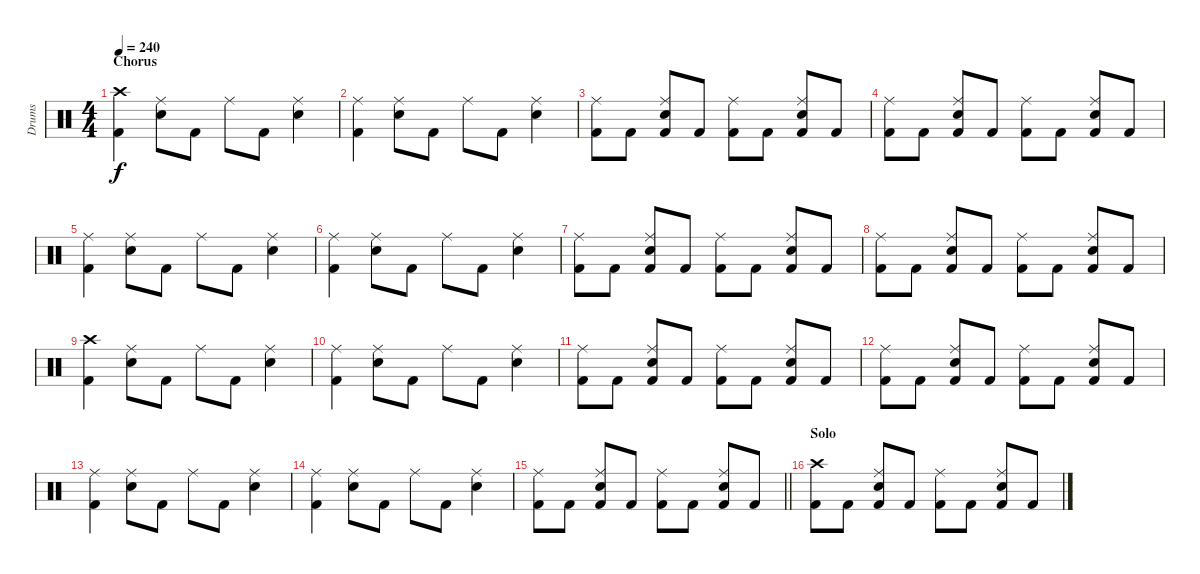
\track ("Drums" "Drums") {instrument percussion}
\staff {score}
\articulation defaults
\ts (4 4)
\section ("" "Chorus")
\tempo 240
\clef neutral
\ks c
("Crash high (hit)" "Kick (hit) 2").4{dy f} ("Ride (middle)" "Snare (hit) 2").8 "Kick (hit) 2".8 "Ride (middle)".8 "Kick (hit) 2".8 ("Ride (middle)" "Snare (hit) 2").4 |
("Ride (middle)" "Kick (hit) 2").4 ("Ride (middle)" "Snare (hit) 2").8 "Kick (hit) 2".8 "Ride (middle)".8 "Kick (hit) 2".8 ("Ride (middle)" "Snare (hit) 2").4 |
("Ride (middle)" "Kick (hit) 2").8 "Kick (hit) 2".8 ("Ride (middle)" "Snare (hit) 2" "Kick (hit) 2").8 "Kick (hit) 2".8 ("Ride (middle)" "Kick (hit) 2").8 "Kick (hit) 2".8 ("Ride (middle)" "Snare (hit) 2" "Kick (hit) 2").8 "Kick (hit) 2".8 |
("Ride (middle)" "Kick (hit) 2").8 "Kick (hit) 2".8 ("Ride (middle)" "Snare (hit) 2" "Kick (hit) 2").8 "Kick (hit) 2".8 ("Ride (middle)" "Kick (hit) 2").8 "Kick (hit) 2".8 ("Ride (middle)" "Snare (hit) 2" "Kick (hit) 2").8 "Kick (hit) 2".8 |
("Ride (middle)" "Kick (hit) 2").4 ("Ride (middle)" "Snare (hit) 2").8 "Kick (hit) 2".8 "Ride (middle)".8 "Kick (hit) 2".8 ("Ride (middle)" "Snare (hit) 2").4 |
("Ride (middle)" "Kick (hit) 2").4 ("Ride (middle)" "Snare (hit) 2").8 "Kick (hit) 2".8 "Ride (middle)".8 "Kick (hit) 2".8 ("Ride (middle)" "Snare (hit) 2").4 |
("Ride (middle)" "Kick (hit) 2").8 "Kick (hit) 2".8 ("Ride (middle)" "Snare (hit) 2" "Kick (hit) 2").8 "Kick (hit) 2".8 ("Ride (middle)" "Kick (hit) 2").8 "Kick (hit) 2".8 ("Ride (middle)" "Snare (hit) 2" "Kick (hit) 2").8 "Kick (hit) 2".8 |
("Ride (middle)" "Kick (hit) 2").8 "Kick (hit) 2".8 ("Ride (middle)" "Snare (hit) 2" "Kick (hit) 2").8 "Kick (hit) 2".8 ("Ride (middle)" "Kick (hit) 2").8 "Kick (hit) 2".8 ("Ride (middle)" "Snare (hit) 2" "Kick (hit) 2").8 "Kick (hit) 2".8 |
("Crash high (hit)" "Kick (hit) 2").4 ("Ride (middle)" "Snare (hit) 2").8 "Kick (hit) 2".8 "Ride (middle)".8 "Kick (hit) 2".8 ("Ride (middle)" "Snare (hit) 2").4 |
("Ride (middle)" "Kick (hit) 2").4 ("Ride (middle)" "Snare (hit) 2").8 "Kick (hit) 2".8 "Ride (middle)".8 "Kick (hit) 2".8 ("Ride (middle)" "Snare (hit) 2").4 |
("Ride (middle)" "Kick (hit) 2").8 "Kick (hit) 2".8 ("Ride (middle)" "Snare (hit) 2" "Kick (hit) 2").8 "Kick (hit) 2".8 ("Ride (middle)" "Kick (hit) 2").8 "Kick (hit) 2".8 ("Ride (middle)" "Snare (hit) 2" "Kick (hit) 2").8 "Kick (hit) 2".8 |
("Ride (middle)" "Kick (hit) 2").8 "Kick (hit) 2".8 ("Ride (middle)" "Snare (hit) 2" "Kick (hit) 2").8 "Kick (hit) 2".8 ("Ride (middle)" "Kick (hit) 2").8 "Kick (hit) 2".8 ("Ride (middle)" "Snare (hit) 2" "Kick (hit) 2").8 "Kick (hit) 2".8 |
("Ride (middle)" "Kick (hit) 2").4 ("Ride (middle)" "Snare (hit) 2").8 "Kick (hit) 2".8 "Ride (middle)".8 "Kick (hit) 2".8 ("Ride (middle)" "Snare (hit) 2").4 |
("Ride (middle)" "Kick (hit) 2").4 ("Ride (middle)" "Snare (hit) 2").8 "Kick (hit) 2".8 "Ride (middle)".8 "Kick (hit) 2".8 ("Ride (middle)" "Snare (hit) 2").4 |
\barLineRight lightlight
("Ride (middle)" "Kick (hit) 2").8 "Kick (hit) 2".8 ("Ride (middle)" "Snare (hit) 2" "Kick (hit) 2").8 "Kick (hit) 2".8 ("Ride (middle)" "Kick (hit) 2").8 "Kick (hit) 2".8 ("Ride (middle)" "Snare (hit) 2" "Kick (hit) 2").8 "Kick (hit) 2".8 |
\section ("" "Solo")
("Crash high (hit)" "Kick (hit) 2").8 "Kick (hit) 2".8 ("Ride (middle)" "Snare (hit) 2" "Kick (hit) 2").8 "Kick (hit) 2".8 ("Ride (middle)" "Kick (hit) 2").8 "Kick (hit) 2".8 ("Ride (middle)" "Snare (hit) 2" "Kick (hit) 2").8 "Kick (hit) 2".8
